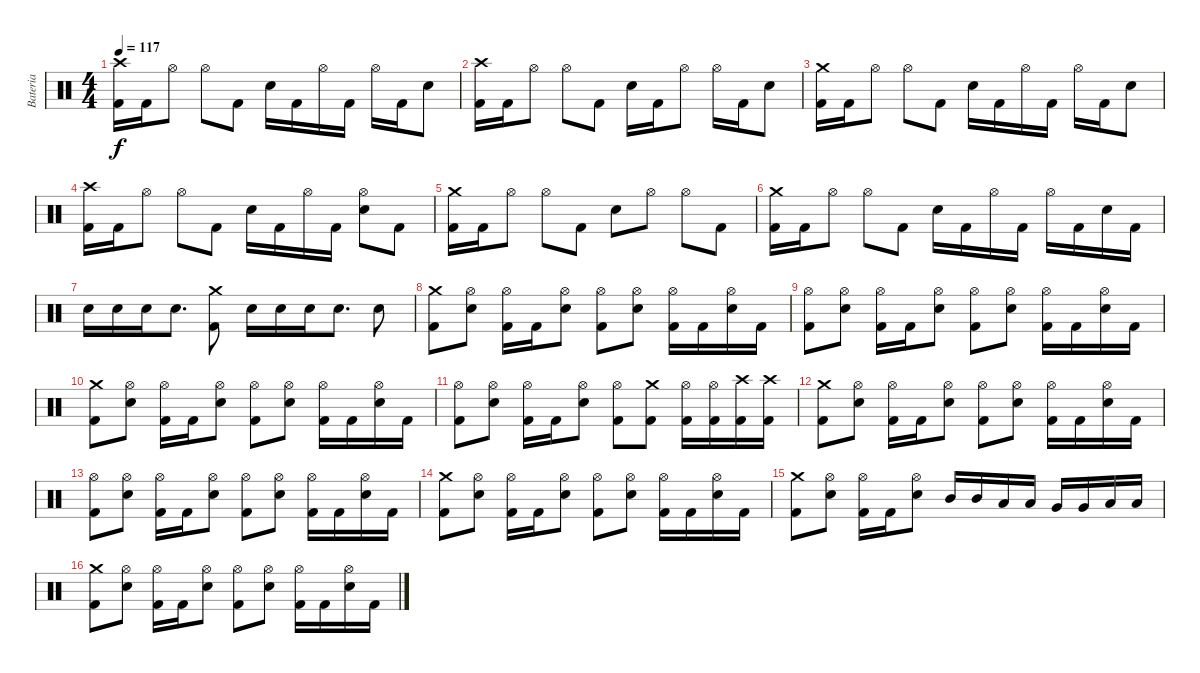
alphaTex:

\track ("Bateria" "Bateria") {instrument percussion}
\staff {score}
\articulation defaults
\ts (4 4)
\tempo 117
\clef neutral
\ks c
("Crash high (hit)" "Kick (hit) 2").16{dy f} "Kick (hit) 2".16 "Hi-Hat (open)".8 "Hi-Hat (open)".8 "Kick (hit) 2".8 "Electric Snare (hit)".16 "Kick (hit) 2".16 "Hi-Hat (open)".16 "Kick (hit) 2".16 "Hi-Hat (open)".16 "Kick (hit) 2".16 "Electric Snare (hit)".8 |
("Crash high (hit)" "Kick (hit) 2").16 "Kick (hit) 2".16 "Hi-Hat (open)".8 "Hi-Hat (open)".8 "Kick (hit) 2".8 "Electric Snare (hit)".16 "Kick (hit) 2".16 "Hi-Hat (open)".8 "Hi-Hat (open)".16 "Kick (hit) 2".16 "Electric Snare (hit)".8 |
("Crash medium (hit)" "Kick (hit) 2").16 "Kick (hit) 2".16 "Hi-Hat (open)".8 "Hi-Hat (open)".8 "Kick (hit) 2".8 "Electric Snare (hit)".16 "Kick (hit) 2".16 "Hi-Hat (open)".16 "Kick (hit) 2".16 "Hi-Hat (open)".16 "Kick (hit) 2".16 "Electric Snare (hit)".8 |
("Crash high (hit)" "Kick (hit) 2").16 "Kick (hit) 2".16 "Hi-Hat (open)".8 "Hi-Hat (open)".8 "Kick (hit) 2".8 "Electric Snare (hit)".16 "Kick (hit) 2".16 "Hi-Hat (open)".16 "Kick (hit) 2".16 ("Hi-Hat (open)" "Electric Snare (hit)").8 "Kick (hit) 2".8 |
("Crash medium (hit)" "Kick (hit) 2").16 "Kick (hit) 2".16 "Hi-Hat (open)".8 "Hi-Hat (open)".8 "Kick (hit) 2".8 "Electric Snare (hit)".8 "Hi-Hat (open)".8 "Hi-Hat (open)".8 "Kick (hit) 2".8 |
("Crash medium (hit)" "Kick (hit) 2").16 "Kick (hit) 2".16 "Hi-Hat (open)".8 "Hi-Hat (open)".8 "Kick (hit) 2".8 "Electric Snare (hit)".16 "Kick (hit) 2".16 "Hi-Hat (open)".16 "Kick (hit) 2".16 "Hi-Hat (open)".16 "Kick (hit) 2".16 "Electric Snare (hit)".16 "Kick (hit) 2".16 |
"Electric Snare (hit)".16 "Electric Snare (hit)".16 "Electric Snare (hit)".16 "Electric Snare (hit)".8{d} ("Crash medium (hit)" "Kick (hit) 2").8 "Electric Snare (hit)".16 "Electric Snare (hit)".16 "Electric Snare (hit)".16 "Electric Snare (hit)".8{d} "Electric Snare (hit)".8 |
("Crash medium (hit)" "Kick (hit) 2").8 ("Hi-Hat (open)" "Electric Snare (hit)").8 ("Hi-Hat (open)" "Kick (hit) 2").16 "Kick (hit) 2".16 ("Hi-Hat (open)" "Electric Snare (hit)").8 ("Hi-Hat (open)" "Kick (hit) 2").8 ("Hi-Hat (open)" "Electric Snare (hit)").8 ("Hi-Hat (open)" "Kick (hit) 2").16 "Kick (hit) 2".16 ("Hi-Hat (open)" "Electric Snare (hit)").16 "Kick (hit) 2".16 |
("Hi-Hat (open)" "Kick (hit) 2").8 ("Hi-Hat (open)" "Electric Snare (hit)").8 ("Hi-Hat (open)" "Kick (hit) 2").16 "Kick (hit) 2".16 ("Hi-Hat (open)" "Electric Snare (hit)").8 ("Hi-Hat (open)" "Kick (hit) 2").8 ("Hi-Hat (open)" "Electric Snare (hit)").8 ("Hi-Hat (open)" "Kick (hit) 2").16 "Kick (hit) 2".16 ("Hi-Hat (open)" "Electric Snare (hit)").16 "Kick (hit) 2".16 |
("Crash medium (hit)" "Kick (hit) 2").8 ("Hi-Hat (open)" "Electric Snare (hit)").8 ("Hi-Hat (open)" "Kick (hit) 2").16 "Kick (hit) 2".16 ("Hi-Hat (open)" "Electric Snare (hit)").8 ("Hi-Hat (open)" "Kick (hit) 2").8 ("Hi-Hat (open)" "Electric Snare (hit)").8 ("Hi-Hat (open)" "Kick (hit) 2").16 "Kick (hit) 2".16 ("Hi-Hat (open)" "Electric Snare (hit)").16 "Kick (hit) 2".16 |
("Hi-Hat (open)" "Kick (hit) 2").8 ("Hi-Hat (open)" "Electric Snare (hit)").8 ("Hi-Hat (open)" "Kick (hit) 2").16 "Kick (hit) 2".16 ("Hi-Hat (open)" "Electric Snare (hit)").8 ("Hi-Hat (open)" "Kick (hit) 2").8 ("Crash medium (hit)" "Kick (hit) 2").8 ("Hi-Hat (open)" "Kick (hit) 2").16 ("Hi-Hat (open)" "Kick (hit) 2").16 ("Crash high (hit)" "Kick (hit) 2").16 ("Crash high (hit)" "Kick (hit) 2").16 |
("Crash medium (hit)" "Kick (hit) 2").8 ("Hi-Hat (open)" "Electric Snare (hit)").8 ("Hi-Hat (open)" "Kick (hit) 2").16 "Kick (hit) 2".16 ("Hi-Hat (open)" "Electric Snare (hit)").8 ("Hi-Hat (open)" "Kick (hit) 2").8 ("Hi-Hat (open)" "Electric Snare (hit)").8 ("Hi-Hat (open)" "Kick (hit) 2").16 "Kick (hit) 2".16 ("Hi-Hat (open)" "Electric Snare (hit)").16 "Kick (hit) 2".16 |
("Hi-Hat (open)" "Kick (hit) 2").8 ("Hi-Hat (open)" "Electric Snare (hit)").8 ("Hi-Hat (open)" "Kick (hit) 2").16 "Kick (hit) 2".16 ("Hi-Hat (open)" "Electric Snare (hit)").8 ("Hi-Hat (open)" "Kick (hit) 2").8 ("Hi-Hat (open)" "Electric Snare (hit)").8 ("Hi-Hat (open)" "Kick (hit) 2").16 "Kick (hit) 2".16 ("Hi-Hat (open)" "Electric Snare (hit)").16 "Kick (hit) 2".16 |
("Crash medium (hit)" "Kick (hit) 2").8 ("Hi-Hat (open)" "Electric Snare (hit)").8 ("Hi-Hat (open)" "Kick (hit) 2").16 "Kick (hit) 2".16 ("Hi-Hat (open)" "Electric Snare (hit)").8 ("Hi-Hat (open)" "Kick (hit) 2").8 ("Hi-Hat (open)" "Electric Snare (hit)").8 ("Hi-Hat (open)" "Kick (hit) 2").16 "Kick (hit) 2".16 ("Hi-Hat (open)" "Electric Snare (hit)").16 "Kick (hit) 2".16 |
("Crash medium (hit)" "Kick (hit) 2").8 ("Hi-Hat (open)" "Electric Snare (hit)").8 ("Hi-Hat (open)" "Kick (hit) 2").16 "Kick (hit) 2".16 ("Hi-Hat (open)" "Electric Snare (hit)").8 "Mid Tom (hit)".16 "Mid Tom (hit)".16 "Low Tom (hit)".16 "Low Tom (hit)".16 "Very Low Tom (hit)".16 "Very Low Tom (hit)".16 "Low Floor Tom (hit)".16 "Low Floor Tom (hit)".16 |
("Crash medium (hit)" "Kick (hit) 2").8 ("Hi-Hat (open)" "Electric Snare (hit)").8 ("Hi-Hat (open)" "Kick (hit) 2").16 "Kick (hit) 2".16 ("Hi-Hat (open)" "Electric Snare (hit)").8 ("Hi-Hat (open)" "Kick (hit) 2").8 ("Hi-Hat (open)" "Electric Snare (hit)").8 ("Hi-Hat (open)" "Kick (hit) 2").16 "Kick (hit) 2".16 ("Hi-Hat (open)" "Electric Snare (hit)").16 "Kick (hit) 2".16
